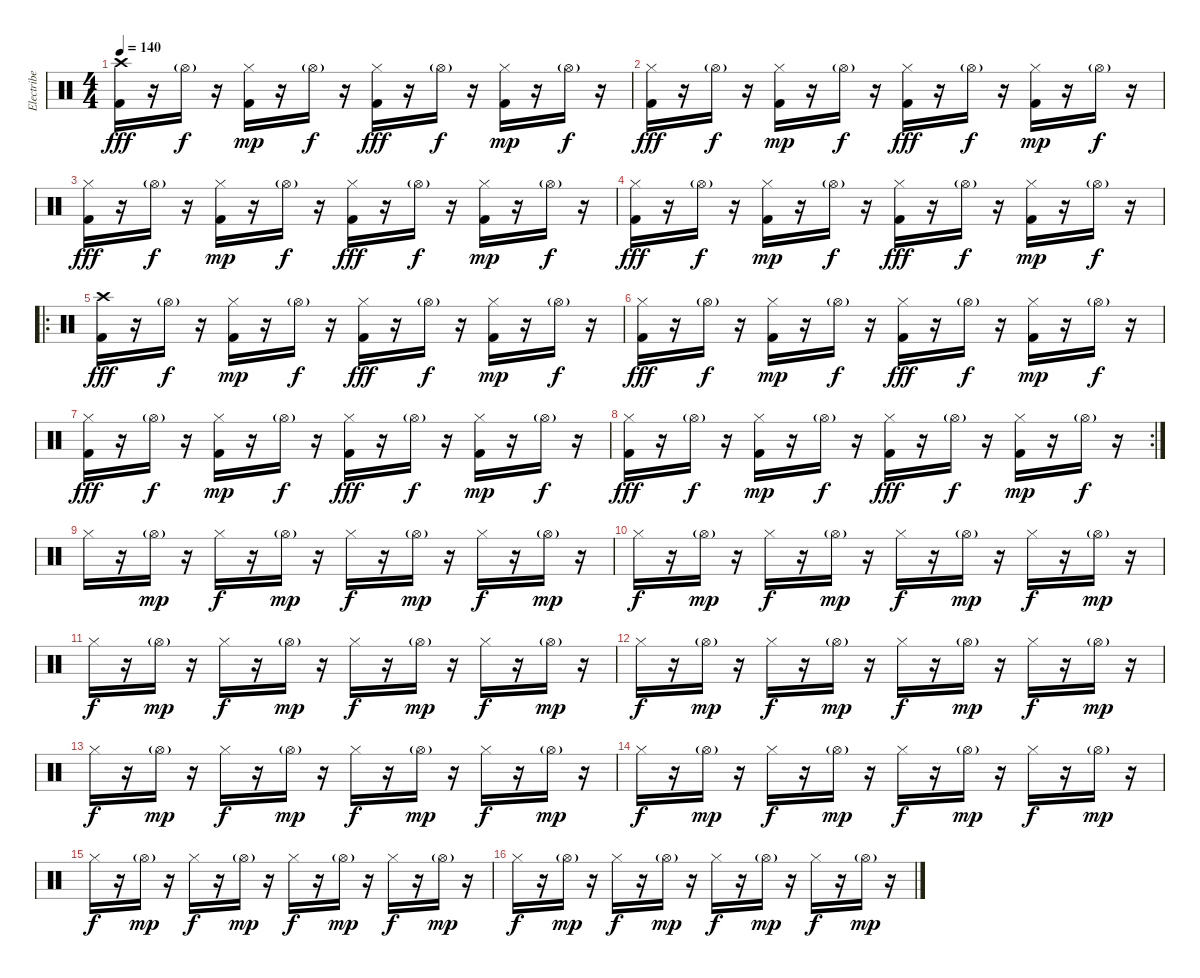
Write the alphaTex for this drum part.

\track ("Electribe Beat" "Electribe ") {instrument percussion}
\staff {score}
\articulation defaults
\ts (4 4)
\tempo 140
\clef neutral
\ks c
("Crash high (hit)" "Kick (hit) 2").16{dy fff} r.16 "Hi-Hat (open)"{g}.16{dy f} r.16 ("Hi-Hat (closed)" "Kick (hit) 2").16{dy mp} r.16 "Hi-Hat (open)"{g}.16{dy f} r.16 ("Hi-Hat (closed)" "Kick (hit) 2").16{dy fff} r.16 "Hi-Hat (open)"{g}.16{dy f} r.16 ("Hi-Hat (closed)" "Kick (hit) 2").16{dy mp} r.16 "Hi-Hat (open)"{g}.16{dy f} r.16 |
("Hi-Hat (closed)" "Kick (hit) 2").16{dy fff} r.16 "Hi-Hat (open)"{g}.16{dy f} r.16 ("Hi-Hat (closed)" "Kick (hit) 2").16{dy mp} r.16 "Hi-Hat (open)"{g}.16{dy f} r.16 ("Hi-Hat (closed)" "Kick (hit) 2").16{dy fff} r.16 "Hi-Hat (open)"{g}.16{dy f} r.16 ("Hi-Hat (closed)" "Kick (hit) 2").16{dy mp} r.16 "Hi-Hat (open)"{g}.16{dy f} r.16 |
("Hi-Hat (closed)" "Kick (hit) 2").16{dy fff} r.16 "Hi-Hat (open)"{g}.16{dy f} r.16 ("Hi-Hat (closed)" "Kick (hit) 2").16{dy mp} r.16 "Hi-Hat (open)"{g}.16{dy f} r.16 ("Hi-Hat (closed)" "Kick (hit) 2").16{dy fff} r.16 "Hi-Hat (open)"{g}.16{dy f} r.16 ("Hi-Hat (closed)" "Kick (hit) 2").16{dy mp} r.16 "Hi-Hat (open)"{g}.16{dy f} r.16 |
("Hi-Hat (closed)" "Kick (hit) 2").16{dy fff} r.16 "Hi-Hat (open)"{g}.16{dy f} r.16 ("Hi-Hat (closed)" "Kick (hit) 2").16{dy mp} r.16 "Hi-Hat (open)"{g}.16{dy f} r.16 ("Hi-Hat (closed)" "Kick (hit) 2").16{dy fff} r.16 "Hi-Hat (open)"{g}.16{dy f} r.16 ("Hi-Hat (closed)" "Kick (hit) 2").16{dy mp} r.16 "Hi-Hat (open)"{g}.16{dy f} r.16 |
\ro
("Crash high (hit)" "Kick (hit) 2").16{dy fff} r.16 "Hi-Hat (open)"{g}.16{dy f} r.16 ("Hi-Hat (closed)" "Kick (hit) 2").16{dy mp} r.16 "Hi-Hat (open)"{g}.16{dy f} r.16 ("Hi-Hat (closed)" "Kick (hit) 2").16{dy fff} r.16 "Hi-Hat (open)"{g}.16{dy f} r.16 ("Hi-Hat (closed)" "Kick (hit) 2").16{dy mp} r.16 "Hi-Hat (open)"{g}.16{dy f} r.16 |
("Hi-Hat (closed)" "Kick (hit) 2").16{dy fff} r.16 "Hi-Hat (open)"{g}.16{dy f} r.16 ("Hi-Hat (closed)" "Kick (hit) 2").16{dy mp} r.16 "Hi-Hat (open)"{g}.16{dy f} r.16 ("Hi-Hat (closed)" "Kick (hit) 2").16{dy fff} r.16 "Hi-Hat (open)"{g}.16{dy f} r.16 ("Hi-Hat (closed)" "Kick (hit) 2").16{dy mp} r.16 "Hi-Hat (open)"{g}.16{dy f} r.16 |
("Hi-Hat (closed)" "Kick (hit) 2").16{dy fff} r.16 "Hi-Hat (open)"{g}.16{dy f} r.16 ("Hi-Hat (closed)" "Kick (hit) 2").16{dy mp} r.16 "Hi-Hat (open)"{g}.16{dy f} r.16 ("Hi-Hat (closed)" "Kick (hit) 2").16{dy fff} r.16 "Hi-Hat (open)"{g}.16{dy f} r.16 ("Hi-Hat (closed)" "Kick (hit) 2").16{dy mp} r.16 "Hi-Hat (open)"{g}.16{dy f} r.16 |
\rc 2
("Hi-Hat (closed)" "Kick (hit) 2").16{dy fff} r.16 "Hi-Hat (open)"{g}.16{dy f} r.16 ("Hi-Hat (closed)" "Kick (hit) 2").16{dy mp} r.16 "Hi-Hat (open)"{g}.16{dy f} r.16 ("Hi-Hat (closed)" "Kick (hit) 2").16{dy fff} r.16 "Hi-Hat (open)"{g}.16{dy f} r.16 ("Hi-Hat (closed)" "Kick (hit) 2").16{dy mp} r.16 "Hi-Hat (open)"{g}.16{dy f} r.16 |
"Hi-Hat (closed)".16 r.16 "Hi-Hat (open)"{g}.16{dy mp} r.16 "Hi-Hat (closed)".16{dy f} r.16 "Hi-Hat (open)"{g}.16{dy mp} r.16 "Hi-Hat (closed)".16{dy f} r.16 "Hi-Hat (open)"{g}.16{dy mp} r.16 "Hi-Hat (closed)".16{dy f} r.16 "Hi-Hat (open)"{g}.16{dy mp} r.16 |
"Hi-Hat (closed)".16{dy f} r.16 "Hi-Hat (open)"{g}.16{dy mp} r.16 "Hi-Hat (closed)".16{dy f} r.16 "Hi-Hat (open)"{g}.16{dy mp} r.16 "Hi-Hat (closed)".16{dy f} r.16 "Hi-Hat (open)"{g}.16{dy mp} r.16 "Hi-Hat (closed)".16{dy f} r.16 "Hi-Hat (open)"{g}.16{dy mp} r.16 |
"Hi-Hat (closed)".16{dy f} r.16 "Hi-Hat (open)"{g}.16{dy mp} r.16 "Hi-Hat (closed)".16{dy f} r.16 "Hi-Hat (open)"{g}.16{dy mp} r.16 "Hi-Hat (closed)".16{dy f} r.16 "Hi-Hat (open)"{g}.16{dy mp} r.16 "Hi-Hat (closed)".16{dy f} r.16 "Hi-Hat (open)"{g}.16{dy mp} r.16 |
"Hi-Hat (closed)".16{dy f} r.16 "Hi-Hat (open)"{g}.16{dy mp} r.16 "Hi-Hat (closed)".16{dy f} r.16 "Hi-Hat (open)"{g}.16{dy mp} r.16 "Hi-Hat (closed)".16{dy f} r.16 "Hi-Hat (open)"{g}.16{dy mp} r.16 "Hi-Hat (closed)".16{dy f} r.16 "Hi-Hat (open)"{g}.16{dy mp} r.16 |
"Hi-Hat (closed)".16{dy f} r.16 "Hi-Hat (open)"{g}.16{dy mp} r.16 "Hi-Hat (closed)".16{dy f} r.16 "Hi-Hat (open)"{g}.16{dy mp} r.16 "Hi-Hat (closed)".16{dy f} r.16 "Hi-Hat (open)"{g}.16{dy mp} r.16 "Hi-Hat (closed)".16{dy f} r.16 "Hi-Hat (open)"{g}.16{dy mp} r.16 |
"Hi-Hat (closed)".16{dy f} r.16 "Hi-Hat (open)"{g}.16{dy mp} r.16 "Hi-Hat (closed)".16{dy f} r.16 "Hi-Hat (open)"{g}.16{dy mp} r.16 "Hi-Hat (closed)".16{dy f} r.16 "Hi-Hat (open)"{g}.16{dy mp} r.16 "Hi-Hat (closed)".16{dy f} r.16 "Hi-Hat (open)"{g}.16{dy mp} r.16 |
"Hi-Hat (closed)".16{dy f} r.16 "Hi-Hat (open)"{g}.16{dy mp} r.16 "Hi-Hat (closed)".16{dy f} r.16 "Hi-Hat (open)"{g}.16{dy mp} r.16 "Hi-Hat (closed)".16{dy f} r.16 "Hi-Hat (open)"{g}.16{dy mp} r.16 "Hi-Hat (closed)".16{dy f} r.16 "Hi-Hat (open)"{g}.16{dy mp} r.16 |
"Hi-Hat (closed)".16{dy f} r.16 "Hi-Hat (open)"{g}.16{dy mp} r.16 "Hi-Hat (closed)".16{dy f} r.16 "Hi-Hat (open)"{g}.16{dy mp} r.16 "Hi-Hat (closed)".16{dy f} r.16 "Hi-Hat (open)"{g}.16{dy mp} r.16 "Hi-Hat (closed)".16{dy f} r.16 "Hi-Hat (open)"{g}.16{dy mp} r.16
